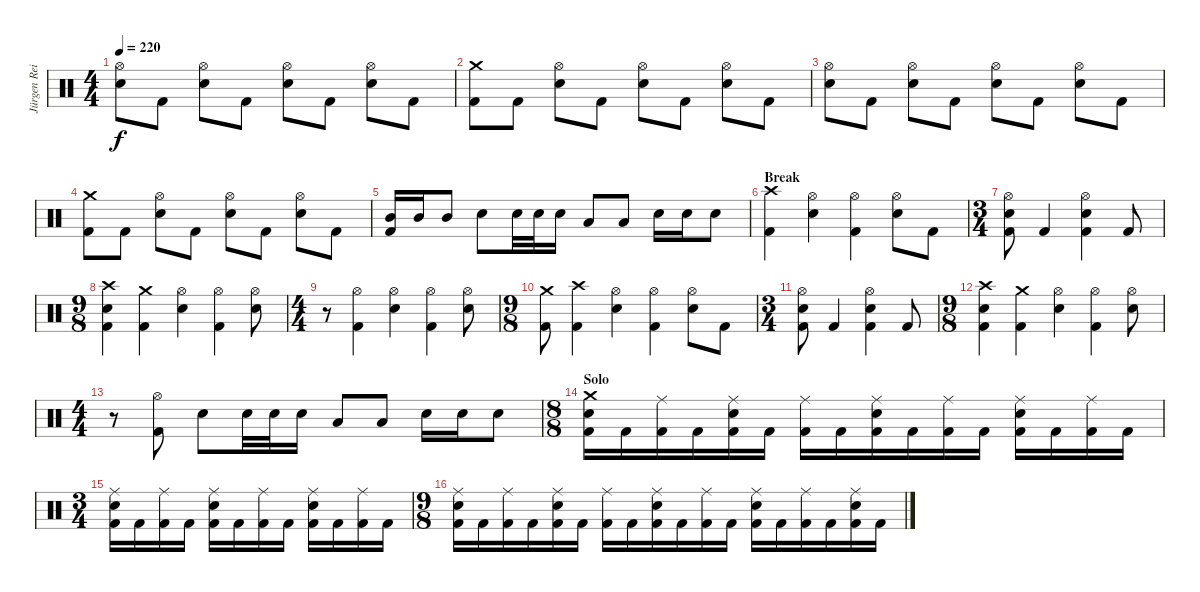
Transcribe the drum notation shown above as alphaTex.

\track ("Jürgen Reil" "Jürgen Rei") {instrument percussion}
\staff {score}
\articulation defaults
\ts (4 4)
\tempo 220
\clef neutral
\ks c
("Hi-Hat (open)" "Electric Snare (hit)").8{dy f} "Kick (hit) 2".8 ("Hi-Hat (open)" "Electric Snare (hit)").8 "Kick (hit) 2".8 ("Hi-Hat (open)" "Electric Snare (hit)").8 "Kick (hit) 2".8 ("Hi-Hat (open)" "Electric Snare (hit)").8 "Kick (hit) 2".8 |
("Crash medium (hit)" "Kick (hit) 2").8 "Kick (hit) 2".8 ("Hi-Hat (open)" "Electric Snare (hit)").8 "Kick (hit) 2".8 ("Hi-Hat (open)" "Electric Snare (hit)").8 "Kick (hit) 2".8 ("Hi-Hat (open)" "Electric Snare (hit)").8 "Kick (hit) 2".8 |
("Hi-Hat (open)" "Electric Snare (hit)").8 "Kick (hit) 2".8 ("Hi-Hat (open)" "Electric Snare (hit)").8 "Kick (hit) 2".8 ("Hi-Hat (open)" "Electric Snare (hit)").8 "Kick (hit) 2".8 ("Hi-Hat (open)" "Electric Snare (hit)").8 "Kick (hit) 2".8 |
("Crash medium (hit)" "Kick (hit) 2").8 "Kick (hit) 2".8 ("Hi-Hat (open)" "Electric Snare (hit)").8 "Kick (hit) 2".8 ("Hi-Hat (open)" "Electric Snare (hit)").8 "Kick (hit) 2".8 ("Hi-Hat (open)" "Electric Snare (hit)").8 "Kick (hit) 2".8 |
("Mid Tom (hit)" "Kick (hit) 2").16 "Mid Tom (hit)".16 "Mid Tom (hit)".8 "Electric Snare (hit)".8 "Electric Snare (hit)".32 "Electric Snare (hit)".32 "Electric Snare (hit)".16 "Low Tom (hit)".8 "Low Tom (hit)".8 "Electric Snare (hit)".16 "Electric Snare (hit)".16 "Electric Snare (hit)".8 |
\section ("" "Break")
("Crash high (hit)" "Kick (hit) 2").4 ("Hi-Hat (open)" "Electric Snare (hit)").4 ("Hi-Hat (open)" "Kick (hit) 2").4 ("Hi-Hat (open)" "Electric Snare (hit)").8 "Kick (hit) 2".8 |
\ts (3 4)
("Hi-Hat (open)" "Electric Snare (hit)" "Kick (hit) 2").8 "Kick (hit) 2".4 ("Hi-Hat (open)" "Electric Snare (hit)" "Kick (hit) 2").4 "Kick (hit) 2".8 |
\ts (9 8)
("Crash high (hit)" "Electric Snare (hit)" "Kick (hit) 2").4 ("Crash medium (hit)" "Kick (hit) 2").4 ("Hi-Hat (open)" "Electric Snare (hit)").4 ("Hi-Hat (open)" "Kick (hit) 2").4 ("Hi-Hat (open)" "Electric Snare (hit)").8 |
\ts (4 4)
r.8 ("Hi-Hat (open)" "Kick (hit) 2").4 ("Hi-Hat (open)" "Electric Snare (hit)").4 ("Hi-Hat (open)" "Kick (hit) 2").4 ("Hi-Hat (open)" "Electric Snare (hit)").8 |
\ts (9 8)
("Crash medium (hit)" "Kick (hit) 2").8 ("Crash high (hit)" "Kick (hit) 2").4 ("Hi-Hat (open)" "Electric Snare (hit)").4 ("Hi-Hat (open)" "Kick (hit) 2").4 ("Hi-Hat (open)" "Electric Snare (hit)").8 "Kick (hit) 2".8 |
\ts (3 4)
("Hi-Hat (open)" "Electric Snare (hit)" "Kick (hit) 2").8 "Kick (hit) 2".4 ("Hi-Hat (open)" "Electric Snare (hit)" "Kick (hit) 2").4 "Kick (hit) 2".8 |
\ts (9 8)
("Crash high (hit)" "Electric Snare (hit)" "Kick (hit) 2").4 ("Crash medium (hit)" "Kick (hit) 2").4 ("Hi-Hat (open)" "Electric Snare (hit)").4 ("Hi-Hat (open)" "Kick (hit) 2").4 ("Hi-Hat (open)" "Electric Snare (hit)").8 |
\ts (4 4)
r.8 ("Hi-Hat (open)" "Kick (hit) 2").8 "Electric Snare (hit)".8 "Electric Snare (hit)".32 "Electric Snare (hit)".32 "Electric Snare (hit)".16 "Low Tom (hit)".8 "Low Tom (hit)".8 "Electric Snare (hit)".16 "Electric Snare (hit)".16 "Electric Snare (hit)".8 |
\ts (8 8)
\section ("" "Solo")
("Crash medium (hit)" "Electric Snare (hit)" "Kick (hit) 2").16 "Kick (hit) 2".16 ("Ride (middle)" "Kick (hit) 2").16 "Kick (hit) 2".16 ("Ride (middle)" "Electric Snare (hit)" "Kick (hit) 2").16 "Kick (hit) 2".16 ("Ride (middle)" "Kick (hit) 2").16 "Kick (hit) 2".16 ("Ride (middle)" "Electric Snare (hit)" "Kick (hit) 2").16 "Kick (hit) 2".16 ("Ride (middle)" "Kick (hit) 2").16 "Kick (hit) 2".16 ("Ride (middle)" "Electric Snare (hit)" "Kick (hit) 2").16 "Kick (hit) 2".16 ("Ride (middle)" "Kick (hit) 2").16 "Kick (hit) 2".16 |
\ts (3 4)
("Ride (middle)" "Electric Snare (hit)" "Kick (hit) 2").16 "Kick (hit) 2".16 ("Ride (middle)" "Kick (hit) 2").16 "Kick (hit) 2".16 ("Ride (middle)" "Electric Snare (hit)" "Kick (hit) 2").16 "Kick (hit) 2".16 ("Ride (middle)" "Kick (hit) 2").16 "Kick (hit) 2".16 ("Ride (middle)" "Electric Snare (hit)" "Kick (hit) 2").16 "Kick (hit) 2".16 ("Ride (middle)" "Kick (hit) 2").16 "Kick (hit) 2".16 |
\ts (9 8)
("Ride (middle)" "Electric Snare (hit)" "Kick (hit) 2").16 "Kick (hit) 2".16 ("Ride (middle)" "Kick (hit) 2").16 "Kick (hit) 2".16 ("Ride (middle)" "Electric Snare (hit)" "Kick (hit) 2").16 "Kick (hit) 2".16 ("Ride (middle)" "Kick (hit) 2").16 "Kick (hit) 2".16 ("Ride (middle)" "Electric Snare (hit)" "Kick (hit) 2").16 "Kick (hit) 2".16 ("Ride (middle)" "Kick (hit) 2").16 "Kick (hit) 2".16 ("Ride (middle)" "Electric Snare (hit)" "Kick (hit) 2").16 "Kick (hit) 2".16 ("Ride (middle)" "Kick (hit) 2").16 "Kick (hit) 2".16 ("Ride (middle)" "Electric Snare (hit)" "Kick (hit) 2").16 "Kick (hit) 2".16
